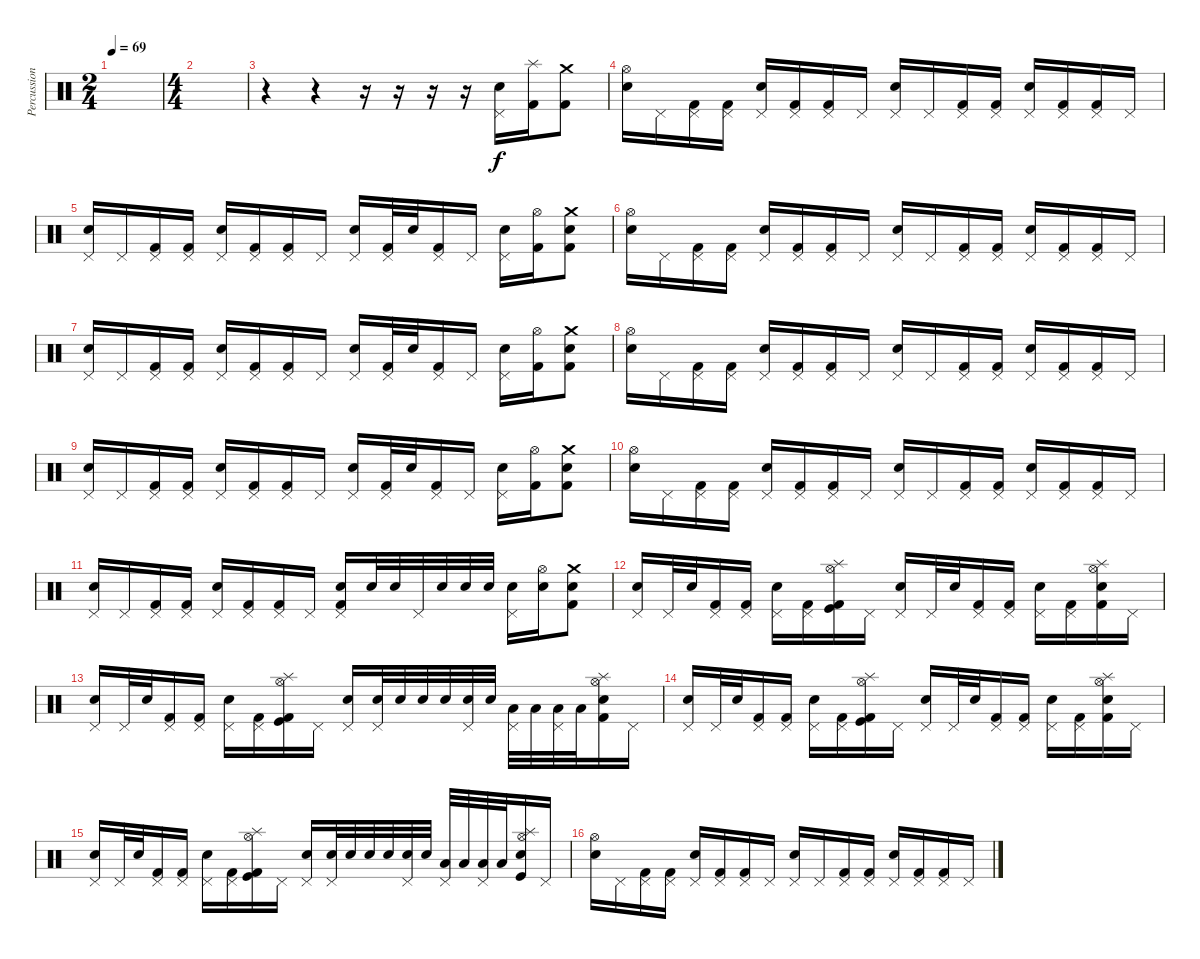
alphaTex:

\track ("Percussion" "Percussion") {instrument percussion}
\staff {score}
\articulation defaults
\ts (2 4)
\tempo 69
\clef neutral
\ks c
|
\ts (4 4)
|
r.4 r.4 r.16 r.16 r.16 r.16 ("Pedal Hi-Hat (hit)" "Snare (hit) 2").16 ("Splash (hit)" "Kick (hit) 2").16 ("Crash medium (hit)" "Kick (hit) 2").8 |
("Hi-Hat (open)" "Snare (hit) 2").16 "Pedal Hi-Hat (hit)".16 ("Pedal Hi-Hat (hit)" "Kick (hit) 2").16 ("Pedal Hi-Hat (hit)" "Kick (hit) 2").16 ("Pedal Hi-Hat (hit)" "Snare (hit) 2").16 ("Pedal Hi-Hat (hit)" "Kick (hit) 2").16 ("Pedal Hi-Hat (hit)" "Kick (hit) 2").16 "Pedal Hi-Hat (hit)".16 ("Pedal Hi-Hat (hit)" "Snare (hit) 2").16 "Pedal Hi-Hat (hit)".16 ("Pedal Hi-Hat (hit)" "Kick (hit) 2").16 ("Pedal Hi-Hat (hit)" "Kick (hit) 2").16 ("Pedal Hi-Hat (hit)" "Snare (hit) 2").16 ("Pedal Hi-Hat (hit)" "Kick (hit) 2").16 ("Pedal Hi-Hat (hit)" "Kick (hit) 2").16 "Pedal Hi-Hat (hit)".16 |
("Pedal Hi-Hat (hit)" "Snare (hit) 2").16 "Pedal Hi-Hat (hit)".16 ("Pedal Hi-Hat (hit)" "Kick (hit) 2").16 ("Pedal Hi-Hat (hit)" "Kick (hit) 2").16 ("Pedal Hi-Hat (hit)" "Snare (hit) 2").16 ("Pedal Hi-Hat (hit)" "Kick (hit) 2").16 ("Pedal Hi-Hat (hit)" "Kick (hit) 2").16 "Pedal Hi-Hat (hit)".16 ("Pedal Hi-Hat (hit)" "Snare (hit) 2").16 ("Pedal Hi-Hat (hit)" "Kick (hit) 2").32 "Snare (hit) 2".32 ("Pedal Hi-Hat (hit)" "Kick (hit) 2").16 "Pedal Hi-Hat (hit)".16 ("Pedal Hi-Hat (hit)" "Snare (hit) 2").16 ("Hi-Hat (open)" "Kick (hit) 2").16 ("Crash medium (hit)" "Snare (hit) 2" "Kick (hit) 2").8 |
("Hi-Hat (open)" "Snare (hit) 2").16 "Pedal Hi-Hat (hit)".16 ("Pedal Hi-Hat (hit)" "Kick (hit) 2").16 ("Pedal Hi-Hat (hit)" "Kick (hit) 2").16 ("Pedal Hi-Hat (hit)" "Snare (hit) 2").16 ("Pedal Hi-Hat (hit)" "Kick (hit) 2").16 ("Pedal Hi-Hat (hit)" "Kick (hit) 2").16 "Pedal Hi-Hat (hit)".16 ("Pedal Hi-Hat (hit)" "Snare (hit) 2").16 "Pedal Hi-Hat (hit)".16 ("Pedal Hi-Hat (hit)" "Kick (hit) 2").16 ("Pedal Hi-Hat (hit)" "Kick (hit) 2").16 ("Pedal Hi-Hat (hit)" "Snare (hit) 2").16 ("Pedal Hi-Hat (hit)" "Kick (hit) 2").16 ("Pedal Hi-Hat (hit)" "Kick (hit) 2").16 "Pedal Hi-Hat (hit)".16 |
("Pedal Hi-Hat (hit)" "Snare (hit) 2").16 "Pedal Hi-Hat (hit)".16 ("Pedal Hi-Hat (hit)" "Kick (hit) 2").16 ("Pedal Hi-Hat (hit)" "Kick (hit) 2").16 ("Pedal Hi-Hat (hit)" "Snare (hit) 2").16 ("Pedal Hi-Hat (hit)" "Kick (hit) 2").16 ("Pedal Hi-Hat (hit)" "Kick (hit) 2").16 "Pedal Hi-Hat (hit)".16 ("Pedal Hi-Hat (hit)" "Snare (hit) 2").16 ("Pedal Hi-Hat (hit)" "Kick (hit) 2").32 "Snare (hit) 2".32 ("Pedal Hi-Hat (hit)" "Kick (hit) 2").16 "Pedal Hi-Hat (hit)".16 ("Pedal Hi-Hat (hit)" "Snare (hit) 2").16 ("Hi-Hat (open)" "Kick (hit) 2").16 ("Crash medium (hit)" "Snare (hit) 2" "Kick (hit) 2").8 |
("Hi-Hat (open)" "Snare (hit) 2").16 "Pedal Hi-Hat (hit)".16 ("Pedal Hi-Hat (hit)" "Kick (hit) 2").16 ("Pedal Hi-Hat (hit)" "Kick (hit) 2").16 ("Pedal Hi-Hat (hit)" "Snare (hit) 2").16 ("Pedal Hi-Hat (hit)" "Kick (hit) 2").16 ("Pedal Hi-Hat (hit)" "Kick (hit) 2").16 "Pedal Hi-Hat (hit)".16 ("Pedal Hi-Hat (hit)" "Snare (hit) 2").16 "Pedal Hi-Hat (hit)".16 ("Pedal Hi-Hat (hit)" "Kick (hit) 2").16 ("Pedal Hi-Hat (hit)" "Kick (hit) 2").16 ("Pedal Hi-Hat (hit)" "Snare (hit) 2").16 ("Pedal Hi-Hat (hit)" "Kick (hit) 2").16 ("Pedal Hi-Hat (hit)" "Kick (hit) 2").16 "Pedal Hi-Hat (hit)".16 |
("Pedal Hi-Hat (hit)" "Snare (hit) 2").16 "Pedal Hi-Hat (hit)".16 ("Pedal Hi-Hat (hit)" "Kick (hit) 2").16 ("Pedal Hi-Hat (hit)" "Kick (hit) 2").16 ("Pedal Hi-Hat (hit)" "Snare (hit) 2").16 ("Pedal Hi-Hat (hit)" "Kick (hit) 2").16 ("Pedal Hi-Hat (hit)" "Kick (hit) 2").16 "Pedal Hi-Hat (hit)".16 ("Pedal Hi-Hat (hit)" "Snare (hit) 2").16 ("Pedal Hi-Hat (hit)" "Kick (hit) 2").32 "Snare (hit) 2".32 ("Pedal Hi-Hat (hit)" "Kick (hit) 2").16 "Pedal Hi-Hat (hit)".16 ("Pedal Hi-Hat (hit)" "Snare (hit) 2").16 ("Hi-Hat (open)" "Kick (hit) 2").16 ("Crash medium (hit)" "Snare (hit) 2" "Kick (hit) 2").8 |
("Hi-Hat (open)" "Snare (hit) 2").16 "Pedal Hi-Hat (hit)".16 ("Pedal Hi-Hat (hit)" "Kick (hit) 2").16 ("Pedal Hi-Hat (hit)" "Kick (hit) 2").16 ("Pedal Hi-Hat (hit)" "Snare (hit) 2").16 ("Pedal Hi-Hat (hit)" "Kick (hit) 2").16 ("Pedal Hi-Hat (hit)" "Kick (hit) 2").16 "Pedal Hi-Hat (hit)".16 ("Pedal Hi-Hat (hit)" "Snare (hit) 2").16 "Pedal Hi-Hat (hit)".16 ("Pedal Hi-Hat (hit)" "Kick (hit) 2").16 ("Pedal Hi-Hat (hit)" "Kick (hit) 2").16 ("Pedal Hi-Hat (hit)" "Snare (hit) 2").16 ("Pedal Hi-Hat (hit)" "Kick (hit) 2").16 ("Pedal Hi-Hat (hit)" "Kick (hit) 2").16 "Pedal Hi-Hat (hit)".16 |
("Pedal Hi-Hat (hit)" "Snare (hit) 2").16 "Pedal Hi-Hat (hit)".16 ("Pedal Hi-Hat (hit)" "Kick (hit) 2").16 ("Pedal Hi-Hat (hit)" "Kick (hit) 2").16 ("Pedal Hi-Hat (hit)" "Snare (hit) 2").16 ("Pedal Hi-Hat (hit)" "Kick (hit) 2").16 ("Pedal Hi-Hat (hit)" "Kick (hit) 2").16 "Pedal Hi-Hat (hit)".16 ("Pedal Hi-Hat (hit)" "Snare (hit) 2" "Kick (hit) 2").16 "Snare (hit) 2".32 "Snare (hit) 2".32 "Pedal Hi-Hat (hit)".32 "Snare (hit) 2".32 "Snare (hit) 2".32 "Snare (hit) 2".32 ("Pedal Hi-Hat (hit)" "Snare (hit) 2").16 ("Hi-Hat (open)" "Snare (hit) 2").16 ("Crash medium (hit)" "Snare (hit) 2" "Kick (hit) 2").8 |
("Pedal Hi-Hat (hit)" "Snare (hit) 2").16 "Pedal Hi-Hat (hit)".32 "Snare (hit) 2".32 ("Pedal Hi-Hat (hit)" "Kick (hit) 2").16 ("Pedal Hi-Hat (hit)" "Kick (hit) 2").16 ("Pedal Hi-Hat (hit)" "Snare (hit) 2").16 ("Pedal Hi-Hat (hit)" "Kick (hit) 2").16 ("Splash (hit)" "Hi-Hat (open)" "Kick (hit)" "Kick (hit) 2").16 "Pedal Hi-Hat (hit)".16 ("Pedal Hi-Hat (hit)" "Snare (hit) 2").16 "Pedal Hi-Hat (hit)".32 "Snare (hit) 2".32 ("Pedal Hi-Hat (hit)" "Kick (hit) 2").16 ("Pedal Hi-Hat (hit)" "Kick (hit) 2").16 ("Pedal Hi-Hat (hit)" "Snare (hit) 2").16 ("Pedal Hi-Hat (hit)" "Kick (hit) 2").16 ("Splash (hit)" "Hi-Hat (open)" "Snare (hit) 2" "Kick (hit) 2").16 "Pedal Hi-Hat (hit)".16 |
("Pedal Hi-Hat (hit)" "Snare (hit) 2").16 "Pedal Hi-Hat (hit)".32 "Snare (hit) 2".32 ("Pedal Hi-Hat (hit)" "Kick (hit) 2").16 ("Pedal Hi-Hat (hit)" "Kick (hit) 2").16 ("Pedal Hi-Hat (hit)" "Snare (hit) 2").16 ("Pedal Hi-Hat (hit)" "Kick (hit) 2").16 ("Splash (hit)" "Hi-Hat (open)" "Kick (hit)" "Kick (hit) 2").16 "Pedal Hi-Hat (hit)".16 ("Pedal Hi-Hat (hit)" "Snare (hit) 2").16 ("Pedal Hi-Hat (hit)" "Snare (hit) 2").32 "Snare (hit) 2".32 "Snare (hit) 2".32 "Snare (hit) 2".32 ("Pedal Hi-Hat (hit)" "Snare (hit) 2").32 "Snare (hit) 2".32 ("Pedal Hi-Hat (hit)" "Low Floor Tom (hit)").32 "Low Floor Tom (hit)".32 ("Pedal Hi-Hat (hit)" "Low Floor Tom (hit)").32 "Low Floor Tom (hit)".32 ("Splash (hit)" "Hi-Hat (open)" "Snare (hit) 2" "Kick (hit) 2").16 "Pedal Hi-Hat (hit)".16 |
("Pedal Hi-Hat (hit)" "Snare (hit) 2").16 "Pedal Hi-Hat (hit)".32 "Snare (hit) 2".32 ("Pedal Hi-Hat (hit)" "Kick (hit) 2").16 ("Pedal Hi-Hat (hit)" "Kick (hit) 2").16 ("Pedal Hi-Hat (hit)" "Snare (hit) 2").16 ("Pedal Hi-Hat (hit)" "Kick (hit) 2").16 ("Splash (hit)" "Hi-Hat (open)" "Kick (hit)" "Kick (hit) 2").16 "Pedal Hi-Hat (hit)".16 ("Pedal Hi-Hat (hit)" "Snare (hit) 2").16 "Pedal Hi-Hat (hit)".32 "Snare (hit) 2".32 ("Pedal Hi-Hat (hit)" "Kick (hit) 2").16 ("Pedal Hi-Hat (hit)" "Kick (hit) 2").16 ("Pedal Hi-Hat (hit)" "Snare (hit) 2").16 ("Pedal Hi-Hat (hit)" "Kick (hit) 2").16 ("Splash (hit)" "Hi-Hat (open)" "Snare (hit) 2" "Kick (hit) 2").16 "Pedal Hi-Hat (hit)".16 |
("Pedal Hi-Hat (hit)" "Snare (hit) 2").16 "Pedal Hi-Hat (hit)".32 "Snare (hit) 2".32 ("Pedal Hi-Hat (hit)" "Kick (hit) 2").16 ("Pedal Hi-Hat (hit)" "Kick (hit) 2").16 ("Pedal Hi-Hat (hit)" "Snare (hit) 2").16 ("Pedal Hi-Hat (hit)" "Kick (hit) 2").16 ("Splash (hit)" "Hi-Hat (open)" "Kick (hit)" "Kick (hit) 2").16 "Pedal Hi-Hat (hit)".16 ("Pedal Hi-Hat (hit)" "Snare (hit) 2").16 ("Pedal Hi-Hat (hit)" "Snare (hit) 2").32 "Snare (hit) 2".32 "Snare (hit) 2".32 "Snare (hit) 2".32 ("Pedal Hi-Hat (hit)" "Snare (hit) 2").32 "Snare (hit) 2".32 ("Pedal Hi-Hat (hit)" "Low Floor Tom (hit)").32 "Low Floor Tom (hit)".32 ("Pedal Hi-Hat (hit)" "Low Floor Tom (hit)").32 "Low Floor Tom (hit)".32 ("Splash (hit)" "Hi-Hat (open)" "Snare (hit) 2" "Kick (hit)").16 "Pedal Hi-Hat (hit)".16 |
("Hi-Hat (open)" "Snare (hit) 2").16 "Pedal Hi-Hat (hit)".16 ("Pedal Hi-Hat (hit)" "Kick (hit) 2").16 ("Pedal Hi-Hat (hit)" "Kick (hit) 2").16 ("Pedal Hi-Hat (hit)" "Snare (hit) 2").16 ("Pedal Hi-Hat (hit)" "Kick (hit) 2").16 ("Pedal Hi-Hat (hit)" "Kick (hit) 2").16 "Pedal Hi-Hat (hit)".16 ("Pedal Hi-Hat (hit)" "Snare (hit) 2").16 "Pedal Hi-Hat (hit)".16 ("Pedal Hi-Hat (hit)" "Kick (hit) 2").16 ("Pedal Hi-Hat (hit)" "Kick (hit) 2").16 ("Pedal Hi-Hat (hit)" "Snare (hit) 2").16 ("Pedal Hi-Hat (hit)" "Kick (hit) 2").16 ("Pedal Hi-Hat (hit)" "Kick (hit) 2").16 "Pedal Hi-Hat (hit)".16
